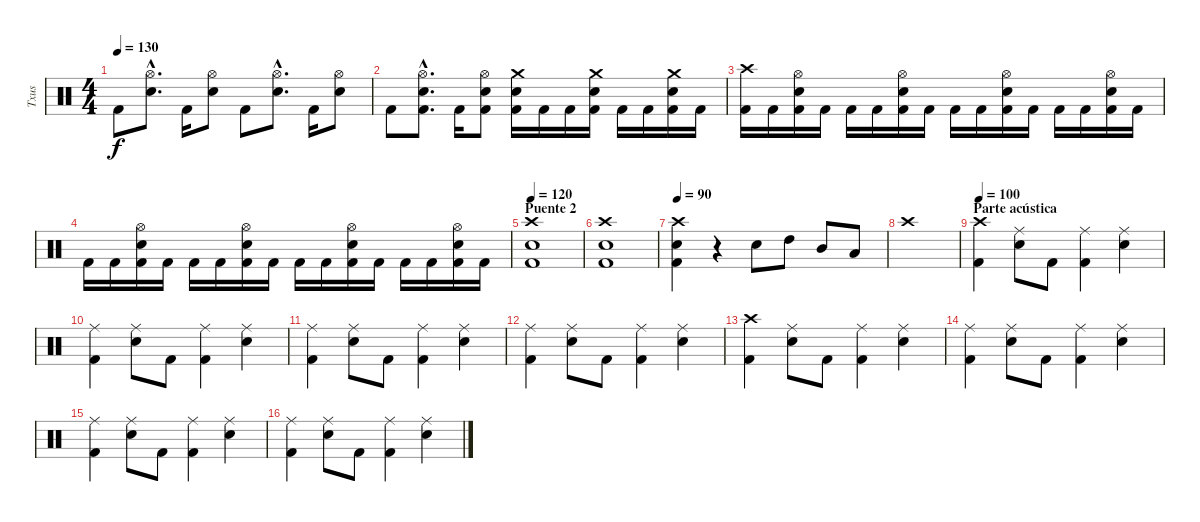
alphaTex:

\track ("Txus" "Txus") {instrument percussion}
\staff {score}
\articulation defaults
\ts (4 4)
\tempo 130
\clef neutral
\ks c "Kick (hit) 2".8{dy f}
("Electric Snare (hit)"{hac} "Hi-Hat (open)"{hac}).8{d} "Kick (hit) 2".16 ("Electric Snare (hit)" "Hi-Hat (open)").8 "Kick (hit) 2".8 ("Electric Snare (hit)"{hac} "Hi-Hat (open)"{hac}).8{d} "Kick (hit) 2".16 ("Electric Snare (hit)" "Hi-Hat (open)").8 |
"Kick (hit) 2".8 ("Kick (hit) 2"{hac} "Electric Snare (hit)"{hac} "Hi-Hat (open)"{hac}).8{d} "Kick (hit) 2".16 ("Kick (hit) 2" "Electric Snare (hit)" "Hi-Hat (open)").8 ("Kick (hit) 2" "Electric Snare (hit)" "Crash medium (hit)").16 "Kick (hit) 2".16 "Kick (hit) 2".16 ("Kick (hit) 2" "Electric Snare (hit)" "Crash medium (hit)").16 "Kick (hit) 2".16 "Kick (hit) 2".16 ("Kick (hit) 2" "Electric Snare (hit)" "Crash medium (hit)").16 "Kick (hit) 2".16 |
("Kick (hit) 2" "Crash high (hit)").16 "Kick (hit) 2".16 ("Kick (hit) 2" "Electric Snare (hit)" "Hi-Hat (open)").16 "Kick (hit) 2".16 "Kick (hit) 2".16 "Kick (hit) 2".16 ("Kick (hit) 2" "Electric Snare (hit)" "Hi-Hat (open)").16 "Kick (hit) 2".16 "Kick (hit) 2".16 "Kick (hit) 2".16 ("Kick (hit) 2" "Electric Snare (hit)" "Hi-Hat (open)").16 "Kick (hit) 2".16 "Kick (hit) 2".16 "Kick (hit) 2".16 ("Kick (hit) 2" "Electric Snare (hit)" "Hi-Hat (open)").16 "Kick (hit) 2".16 |
"Kick (hit) 2".16 "Kick (hit) 2".16 ("Kick (hit) 2" "Electric Snare (hit)" "Hi-Hat (open)").16 "Kick (hit) 2".16 "Kick (hit) 2".16 "Kick (hit) 2".16 ("Kick (hit) 2" "Electric Snare (hit)" "Hi-Hat (open)").16 "Kick (hit) 2".16 "Kick (hit) 2".16 "Kick (hit) 2".16 ("Kick (hit) 2" "Electric Snare (hit)" "Hi-Hat (open)").16 "Kick (hit) 2".16 "Kick (hit) 2".16 "Kick (hit) 2".16 ("Kick (hit) 2" "Electric Snare (hit)" "Hi-Hat (open)").16 "Kick (hit) 2".16 |
\section ("" "Puente 2")
\tempo 120
("Kick (hit) 2" "Electric Snare (hit)" "Crash high (hit)").1 |
("Kick (hit) 2" "Electric Snare (hit)" "Crash high (hit)").1 |
\tempo 90
("Kick (hit) 2" "Electric Snare (hit)" "Crash high (hit)").4 r.4 "Electric Snare (hit)".8 "High Tom (hit)".8 "Mid Tom (hit)".8 "Low Tom (hit)".8 |
"Crash high (hit)".1 |
\section ("" "Parte acústica")
\tempo 100
("Kick (hit) 2" "Crash high (hit)").4{volume 12} ("Electric Snare (hit)" "Ride (middle)").8 "Kick (hit) 2".8 ("Kick (hit) 2" "Ride (middle)").4 ("Electric Snare (hit)" "Ride (middle)").4 |
("Kick (hit) 2" "Ride (middle)").4 ("Electric Snare (hit)" "Ride (middle)").8 "Kick (hit) 2".8 ("Kick (hit) 2" "Ride (middle)").4 ("Electric Snare (hit)" "Ride (middle)").4 |
("Kick (hit) 2" "Ride (middle)").4 ("Electric Snare (hit)" "Ride (middle)").8 "Kick (hit) 2".8 ("Kick (hit) 2" "Ride (middle)").4 ("Electric Snare (hit)" "Ride (middle)").4 |
("Kick (hit) 2" "Ride (middle)").4 ("Electric Snare (hit)" "Ride (middle)").8 "Kick (hit) 2".8 ("Kick (hit) 2" "Ride (middle)").4 ("Electric Snare (hit)" "Ride (middle)").4 |
("Kick (hit) 2" "Crash high (hit)").4 ("Electric Snare (hit)" "Ride (middle)").8 "Kick (hit) 2".8 ("Kick (hit) 2" "Ride (middle)").4 ("Electric Snare (hit)" "Ride (middle)").4 |
("Kick (hit) 2" "Ride (middle)").4 ("Electric Snare (hit)" "Ride (middle)").8 "Kick (hit) 2".8 ("Kick (hit) 2" "Ride (middle)").4 ("Electric Snare (hit)" "Ride (middle)").4 |
("Kick (hit) 2" "Ride (middle)").4 ("Electric Snare (hit)" "Ride (middle)").8 "Kick (hit) 2".8 ("Kick (hit) 2" "Ride (middle)").4 ("Electric Snare (hit)" "Ride (middle)").4 |
("Kick (hit) 2" "Ride (middle)").4 ("Electric Snare (hit)" "Ride (middle)").8 "Kick (hit) 2".8 ("Kick (hit) 2" "Ride (middle)").4 ("Electric Snare (hit)" "Ride (middle)").4
